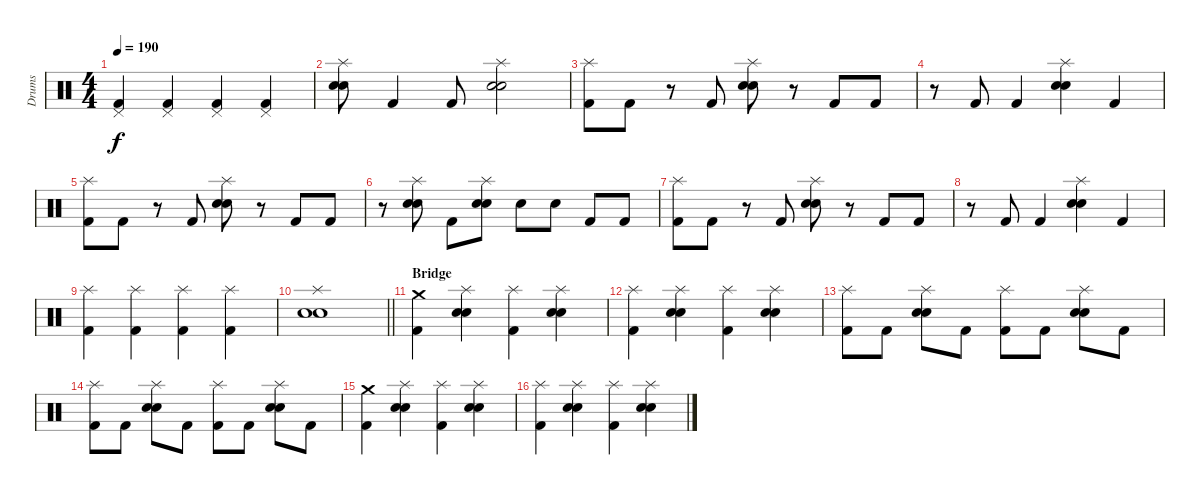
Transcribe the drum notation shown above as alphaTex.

\track ("Drums" "Drums") {instrument percussion}
\staff
\articulation defaults
\ts (4 4)
\tempo 190
\clef neutral
\ks c
("Pedal Hi-Hat (hit)" "Kick (hit) 2").4{dy f} ("Pedal Hi-Hat (hit)" "Kick (hit) 2").4 ("Pedal Hi-Hat (hit)" "Kick (hit) 2").4 ("Pedal Hi-Hat (hit)" "Kick (hit) 2").4 |
("Splash (hit)" "Electric Snare (hit)" "Snare (hit) 2").8 "Kick (hit) 2".4 "Kick (hit) 2".8 ("Splash (hit)" "Electric Snare (hit)" "Snare (hit) 2").2 |
("Splash (hit)" "Kick (hit) 2").8 "Kick (hit) 2".8 r.8 "Kick (hit) 2".8 ("Splash (hit)" "Electric Snare (hit)" "Snare (hit) 2").8 r.8 "Kick (hit) 2".8 "Kick (hit) 2".8 |
r.8 "Kick (hit) 2".8 "Kick (hit) 2".4 ("Splash (hit)" "Electric Snare (hit)" "Snare (hit) 2").4 "Kick (hit) 2".4 |
("Splash (hit)" "Kick (hit) 2").8 "Kick (hit) 2".8 r.8 "Kick (hit) 2".8 ("Splash (hit)" "Electric Snare (hit)" "Snare (hit) 2").8 r.8 "Kick (hit) 2".8 "Kick (hit) 2".8 |
r.8 ("Splash (hit)" "Electric Snare (hit)" "Snare (hit) 2").8 "Kick (hit) 2".8 ("Splash (hit)" "Electric Snare (hit)" "Snare (hit) 2").8 "Electric Snare (hit)".8 "Electric Snare (hit)".8 "Kick (hit) 2".8 "Kick (hit) 2".8 |
("Splash (hit)" "Kick (hit) 2").8 "Kick (hit) 2".8 r.8 "Kick (hit) 2".8 ("Splash (hit)" "Electric Snare (hit)" "Snare (hit) 2").8 r.8 "Kick (hit) 2".8 "Kick (hit) 2".8 |
r.8 "Kick (hit) 2".8 "Kick (hit) 2".4 ("Splash (hit)" "Electric Snare (hit)" "Snare (hit) 2").4 "Kick (hit) 2".4 |
("Splash (hit)" "Kick (hit) 2").4 ("Splash (hit)" "Kick (hit) 2").4 ("Splash (hit)" "Kick (hit) 2").4 ("Splash (hit)" "Kick (hit) 2").4 |
\barLineRight lightlight
("Splash (hit)" "Electric Snare (hit)" "Snare (hit) 2").1 |
\section ("" "Bridge")
("Crash medium (hit)" "Kick (hit) 2").4 ("Splash (hit)" "Electric Snare (hit)" "Snare (hit) 2").4 ("Splash (hit)" "Kick (hit) 2").4 ("Splash (hit)" "Electric Snare (hit)" "Snare (hit) 2").4 |
("Splash (hit)" "Kick (hit) 2").4 ("Splash (hit)" "Electric Snare (hit)" "Snare (hit) 2").4 ("Splash (hit)" "Kick (hit) 2").4 ("Splash (hit)" "Electric Snare (hit)" "Snare (hit) 2").4 |
("Splash (hit)" "Kick (hit) 2").8 "Kick (hit) 2".8 ("Splash (hit)" "Electric Snare (hit)" "Snare (hit) 2").8 "Kick (hit) 2".8 ("Splash (hit)" "Kick (hit) 2").8 "Kick (hit) 2".8 ("Splash (hit)" "Electric Snare (hit)" "Snare (hit) 2").8 "Kick (hit) 2".8 |
("Splash (hit)" "Kick (hit) 2").8 "Kick (hit) 2".8 ("Splash (hit)" "Electric Snare (hit)" "Snare (hit) 2").8 "Kick (hit) 2".8 ("Splash (hit)" "Kick (hit) 2").8 "Kick (hit) 2".8 ("Splash (hit)" "Electric Snare (hit)" "Snare (hit) 2").8 "Kick (hit) 2".8 |
("Crash medium (hit)" "Kick (hit) 2").4 ("Splash (hit)" "Electric Snare (hit)" "Snare (hit) 2").4 ("Splash (hit)" "Kick (hit) 2").4 ("Splash (hit)" "Electric Snare (hit)" "Snare (hit) 2").4 |
("Splash (hit)" "Kick (hit) 2").4 ("Splash (hit)" "Electric Snare (hit)" "Snare (hit) 2").4 ("Splash (hit)" "Kick (hit) 2").4 ("Splash (hit)" "Electric Snare (hit)" "Snare (hit) 2").4
